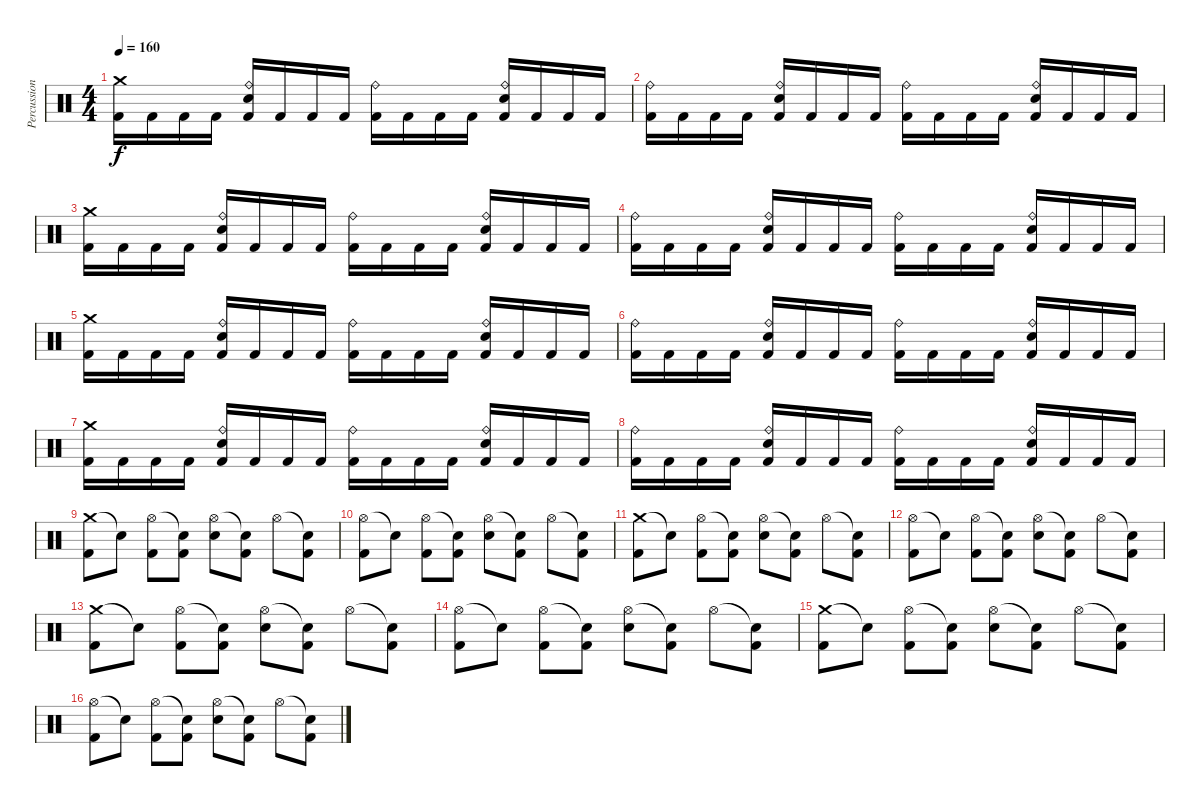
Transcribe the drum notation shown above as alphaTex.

\track ("Percussion" "Percussion") {instrument percussion}
\staff {score}
\articulation defaults
\ts (4 4)
\tempo 160
\clef neutral
\ks c
("Crash medium (hit)" "Kick (hit) 2").16{dy f} "Kick (hit) 2".16 "Kick (hit) 2".16 "Kick (hit) 2".16 ("Ride (bell)" "Electric Snare (hit)" "Kick (hit) 2").16 "Kick (hit) 2".16 "Kick (hit) 2".16 "Kick (hit) 2".16 ("Ride (bell)" "Kick (hit) 2").16 "Kick (hit) 2".16 "Kick (hit) 2".16 "Kick (hit) 2".16 ("Ride (bell)" "Electric Snare (hit)" "Kick (hit) 2").16 "Kick (hit) 2".16 "Kick (hit) 2".16 "Kick (hit) 2".16 |
("Ride (bell)" "Kick (hit) 2").16 "Kick (hit) 2".16 "Kick (hit) 2".16 "Kick (hit) 2".16 ("Ride (bell)" "Electric Snare (hit)" "Kick (hit) 2").16 "Kick (hit) 2".16 "Kick (hit) 2".16 "Kick (hit) 2".16 ("Ride (bell)" "Kick (hit) 2").16 "Kick (hit) 2".16 "Kick (hit) 2".16 "Kick (hit) 2".16 ("Ride (bell)" "Electric Snare (hit)" "Kick (hit) 2").16 "Kick (hit) 2".16 "Kick (hit) 2".16 "Kick (hit) 2".16 |
("Crash medium (hit)" "Kick (hit) 2").16 "Kick (hit) 2".16 "Kick (hit) 2".16 "Kick (hit) 2".16 ("Ride (bell)" "Electric Snare (hit)" "Kick (hit) 2").16 "Kick (hit) 2".16 "Kick (hit) 2".16 "Kick (hit) 2".16 ("Ride (bell)" "Kick (hit) 2").16 "Kick (hit) 2".16 "Kick (hit) 2".16 "Kick (hit) 2".16 ("Ride (bell)" "Electric Snare (hit)" "Kick (hit) 2").16 "Kick (hit) 2".16 "Kick (hit) 2".16 "Kick (hit) 2".16 |
("Ride (bell)" "Kick (hit) 2").16 "Kick (hit) 2".16 "Kick (hit) 2".16 "Kick (hit) 2".16 ("Ride (bell)" "Electric Snare (hit)" "Kick (hit) 2").16 "Kick (hit) 2".16 "Kick (hit) 2".16 "Kick (hit) 2".16 ("Ride (bell)" "Kick (hit) 2").16 "Kick (hit) 2".16 "Kick (hit) 2".16 "Kick (hit) 2".16 ("Ride (bell)" "Electric Snare (hit)" "Kick (hit) 2").16 "Kick (hit) 2".16 "Kick (hit) 2".16 "Kick (hit) 2".16 |
("Crash medium (hit)" "Kick (hit) 2").16 "Kick (hit) 2".16 "Kick (hit) 2".16 "Kick (hit) 2".16 ("Ride (bell)" "Electric Snare (hit)" "Kick (hit) 2").16 "Kick (hit) 2".16 "Kick (hit) 2".16 "Kick (hit) 2".16 ("Ride (bell)" "Kick (hit) 2").16 "Kick (hit) 2".16 "Kick (hit) 2".16 "Kick (hit) 2".16 ("Ride (bell)" "Electric Snare (hit)" "Kick (hit) 2").16 "Kick (hit) 2".16 "Kick (hit) 2".16 "Kick (hit) 2".16 |
("Ride (bell)" "Kick (hit) 2").16 "Kick (hit) 2".16 "Kick (hit) 2".16 "Kick (hit) 2".16 ("Ride (bell)" "Electric Snare (hit)" "Kick (hit) 2").16 "Kick (hit) 2".16 "Kick (hit) 2".16 "Kick (hit) 2".16 ("Ride (bell)" "Kick (hit) 2").16 "Kick (hit) 2".16 "Kick (hit) 2".16 "Kick (hit) 2".16 ("Ride (bell)" "Electric Snare (hit)" "Kick (hit) 2").16 "Kick (hit) 2".16 "Kick (hit) 2".16 "Kick (hit) 2".16 |
("Crash medium (hit)" "Kick (hit) 2").16 "Kick (hit) 2".16 "Kick (hit) 2".16 "Kick (hit) 2".16 ("Ride (bell)" "Electric Snare (hit)" "Kick (hit) 2").16 "Kick (hit) 2".16 "Kick (hit) 2".16 "Kick (hit) 2".16 ("Ride (bell)" "Kick (hit) 2").16 "Kick (hit) 2".16 "Kick (hit) 2".16 "Kick (hit) 2".16 ("Ride (bell)" "Electric Snare (hit)" "Kick (hit) 2").16 "Kick (hit) 2".16 "Kick (hit) 2".16 "Kick (hit) 2".16 |
("Ride (bell)" "Kick (hit) 2").16 "Kick (hit) 2".16 "Kick (hit) 2".16 "Kick (hit) 2".16 ("Ride (bell)" "Electric Snare (hit)" "Kick (hit) 2").16 "Kick (hit) 2".16 "Kick (hit) 2".16 "Kick (hit) 2".16 ("Ride (bell)" "Kick (hit) 2").16 "Kick (hit) 2".16 "Kick (hit) 2".16 "Kick (hit) 2".16 ("Ride (bell)" "Electric Snare (hit)" "Kick (hit) 2").16 "Kick (hit) 2".16 "Kick (hit) 2".16 "Kick (hit) 2".16 |
("Crash medium (hit)" "Kick (hit) 2").8 "Snare (hit)"{t}.8 ("Hi-Hat (open)" "Kick (hit) 2").8 ("Snare (hit)"{t} "Kick (hit) 2").8 ("Hi-Hat (open)" "Electric Snare (hit)").8 ("Snare (hit)"{t} "Kick (hit) 2").8 "Hi-Hat (open)".8 ("Snare (hit)"{t} "Kick (hit) 2").8 |
("Hi-Hat (open)" "Kick (hit) 2").8 "Snare (hit)"{t}.8 ("Hi-Hat (open)" "Kick (hit) 2").8 ("Snare (hit)"{t} "Kick (hit) 2").8 ("Hi-Hat (open)" "Electric Snare (hit)").8 ("Snare (hit)"{t} "Kick (hit) 2").8 "Hi-Hat (open)".8 ("Snare (hit)"{t} "Kick (hit) 2").8 |
("Crash medium (hit)" "Kick (hit) 2").8 "Snare (hit)"{t}.8 ("Hi-Hat (open)" "Kick (hit) 2").8 ("Snare (hit)"{t} "Kick (hit) 2").8 ("Hi-Hat (open)" "Electric Snare (hit)").8 ("Snare (hit)"{t} "Kick (hit) 2").8 "Hi-Hat (open)".8 ("Snare (hit)"{t} "Kick (hit) 2").8 |
("Hi-Hat (open)" "Kick (hit) 2").8 "Snare (hit)"{t}.8 ("Hi-Hat (open)" "Kick (hit) 2").8 ("Snare (hit)"{t} "Kick (hit) 2").8 ("Hi-Hat (open)" "Electric Snare (hit)").8 ("Snare (hit)"{t} "Kick (hit) 2").8 "Hi-Hat (open)".8 ("Snare (hit)"{t} "Kick (hit) 2").8 |
("Crash medium (hit)" "Kick (hit) 2").8 "Snare (hit)"{t}.8 ("Hi-Hat (open)" "Kick (hit) 2").8 ("Snare (hit)"{t} "Kick (hit) 2").8 ("Hi-Hat (open)" "Electric Snare (hit)").8 ("Snare (hit)"{t} "Kick (hit) 2").8 "Hi-Hat (open)".8 ("Snare (hit)"{t} "Kick (hit) 2").8 |
("Hi-Hat (open)" "Kick (hit) 2").8 "Snare (hit)"{t}.8 ("Hi-Hat (open)" "Kick (hit) 2").8 ("Snare (hit)"{t} "Kick (hit) 2").8 ("Hi-Hat (open)" "Electric Snare (hit)").8 ("Snare (hit)"{t} "Kick (hit) 2").8 "Hi-Hat (open)".8 ("Snare (hit)"{t} "Kick (hit) 2").8 |
("Crash medium (hit)" "Kick (hit) 2").8 "Snare (hit)"{t}.8 ("Hi-Hat (open)" "Kick (hit) 2").8 ("Snare (hit)"{t} "Kick (hit) 2").8 ("Hi-Hat (open)" "Electric Snare (hit)").8 ("Snare (hit)"{t} "Kick (hit) 2").8 "Hi-Hat (open)".8 ("Snare (hit)"{t} "Kick (hit) 2").8 |
("Hi-Hat (open)" "Kick (hit) 2").8 "Snare (hit)"{t}.8 ("Hi-Hat (open)" "Kick (hit) 2").8 ("Snare (hit)"{t} "Kick (hit) 2").8 ("Hi-Hat (open)" "Electric Snare (hit)").8 ("Snare (hit)"{t} "Kick (hit) 2").8 "Hi-Hat (open)".8 ("Snare (hit)"{t} "Kick (hit) 2").8
